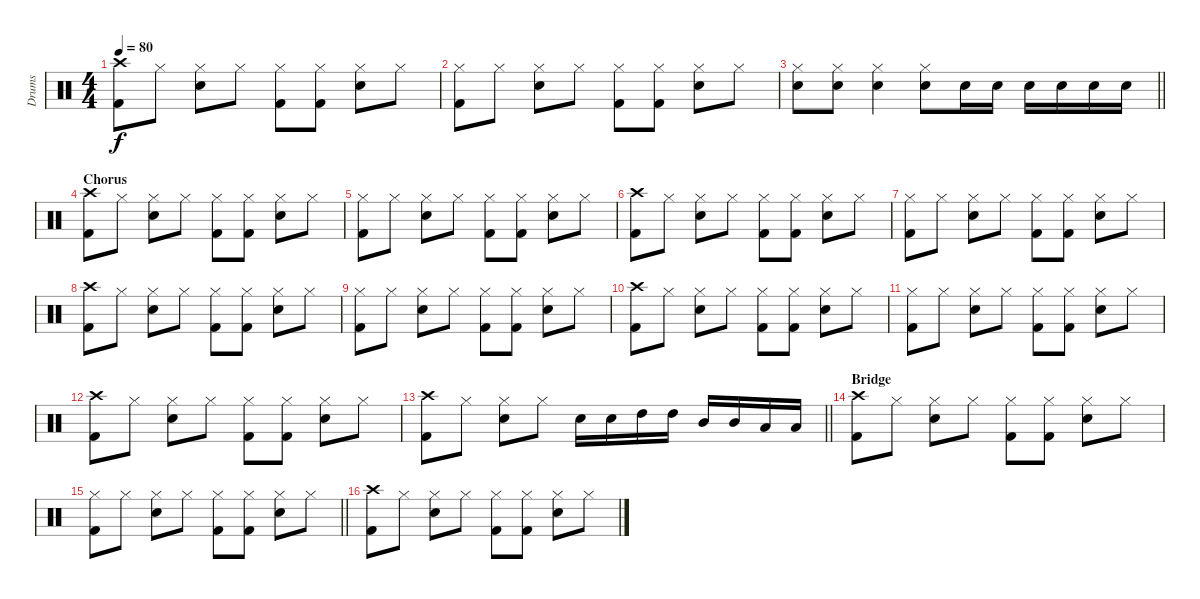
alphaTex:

\track ("Drums" "Drums") {instrument percussion}
\staff {score}
\articulation defaults
\ts (4 4)
\tempo 80
\clef neutral
\ks c
("Crash high (hit)" "Kick (hit) 2").8{dy f} "Hi-Hat (closed)".8 ("Hi-Hat (closed)" "Electric Snare (hit)").8 "Hi-Hat (closed)".8 ("Hi-Hat (closed)" "Kick (hit) 2").8 ("Hi-Hat (closed)" "Kick (hit) 2").8 ("Hi-Hat (closed)" "Electric Snare (hit)").8 "Hi-Hat (closed)".8 |
("Hi-Hat (closed)" "Kick (hit) 2").8 "Hi-Hat (closed)".8 ("Hi-Hat (closed)" "Electric Snare (hit)").8 "Hi-Hat (closed)".8 ("Hi-Hat (closed)" "Kick (hit) 2").8 ("Hi-Hat (closed)" "Kick (hit) 2").8 ("Hi-Hat (closed)" "Electric Snare (hit)").8 "Hi-Hat (closed)".8 |
\barLineRight lightlight
("Hi-Hat (closed)" "Electric Snare (hit)").8 ("Hi-Hat (closed)" "Electric Snare (hit)").8 ("Hi-Hat (closed)" "Electric Snare (hit)").4 ("Hi-Hat (closed)" "Electric Snare (hit)").8 "Electric Snare (hit)".16 "Electric Snare (hit)".16 "Electric Snare (hit)".16 "Electric Snare (hit)".16 "Electric Snare (hit)".16 "Electric Snare (hit)".16 |
\section ("" "Chorus")
("Crash high (hit)" "Kick (hit) 2").8 "Hi-Hat (closed)".8 ("Hi-Hat (closed)" "Electric Snare (hit)").8 "Hi-Hat (closed)".8 ("Hi-Hat (closed)" "Kick (hit) 2").8 ("Hi-Hat (closed)" "Kick (hit) 2").8 ("Hi-Hat (closed)" "Electric Snare (hit)").8 "Hi-Hat (closed)".8 |
("Hi-Hat (closed)" "Kick (hit) 2").8 "Hi-Hat (closed)".8 ("Hi-Hat (closed)" "Electric Snare (hit)").8 "Hi-Hat (closed)".8 ("Hi-Hat (closed)" "Kick (hit) 2").8 ("Hi-Hat (closed)" "Kick (hit) 2").8 ("Hi-Hat (closed)" "Electric Snare (hit)").8 "Hi-Hat (closed)".8 |
("Crash high (hit)" "Kick (hit) 2").8 "Hi-Hat (closed)".8 ("Hi-Hat (closed)" "Electric Snare (hit)").8 "Hi-Hat (closed)".8 ("Hi-Hat (closed)" "Kick (hit) 2").8 ("Hi-Hat (closed)" "Kick (hit) 2").8 ("Hi-Hat (closed)" "Electric Snare (hit)").8 "Hi-Hat (closed)".8 |
("Hi-Hat (closed)" "Kick (hit) 2").8 "Hi-Hat (closed)".8 ("Hi-Hat (closed)" "Electric Snare (hit)").8 "Hi-Hat (closed)".8 ("Hi-Hat (closed)" "Kick (hit) 2").8 ("Hi-Hat (closed)" "Kick (hit) 2").8 ("Hi-Hat (closed)" "Electric Snare (hit)").8 "Hi-Hat (closed)".8 |
("Crash high (hit)" "Kick (hit) 2").8 "Hi-Hat (closed)".8 ("Hi-Hat (closed)" "Electric Snare (hit)").8 "Hi-Hat (closed)".8 ("Hi-Hat (closed)" "Kick (hit) 2").8 ("Hi-Hat (closed)" "Kick (hit) 2").8 ("Hi-Hat (closed)" "Electric Snare (hit)").8 "Hi-Hat (closed)".8 |
("Hi-Hat (closed)" "Kick (hit) 2").8 "Hi-Hat (closed)".8 ("Hi-Hat (closed)" "Electric Snare (hit)").8 "Hi-Hat (closed)".8 ("Hi-Hat (closed)" "Kick (hit) 2").8 ("Hi-Hat (closed)" "Kick (hit) 2").8 ("Hi-Hat (closed)" "Electric Snare (hit)").8 "Hi-Hat (closed)".8 |
("Crash high (hit)" "Kick (hit) 2").8 "Hi-Hat (closed)".8 ("Hi-Hat (closed)" "Electric Snare (hit)").8 "Hi-Hat (closed)".8 ("Hi-Hat (closed)" "Kick (hit) 2").8 ("Hi-Hat (closed)" "Kick (hit) 2").8 ("Hi-Hat (closed)" "Electric Snare (hit)").8 "Hi-Hat (closed)".8 |
("Hi-Hat (closed)" "Kick (hit) 2").8 "Hi-Hat (closed)".8 ("Hi-Hat (closed)" "Electric Snare (hit)").8 "Hi-Hat (closed)".8 ("Hi-Hat (closed)" "Kick (hit) 2").8 ("Hi-Hat (closed)" "Kick (hit) 2").8 ("Hi-Hat (closed)" "Electric Snare (hit)").8 "Hi-Hat (closed)".8 |
("Crash high (hit)" "Kick (hit) 2").8 "Hi-Hat (closed)".8 ("Hi-Hat (closed)" "Electric Snare (hit)").8 "Hi-Hat (closed)".8 ("Hi-Hat (closed)" "Kick (hit) 2").8 ("Hi-Hat (closed)" "Kick (hit) 2").8 ("Hi-Hat (closed)" "Electric Snare (hit)").8 "Hi-Hat (closed)".8 |
\barLineRight lightlight
("Crash high (hit)" "Kick (hit) 2").8 "Hi-Hat (closed)".8 ("Hi-Hat (closed)" "Electric Snare (hit)").8 "Hi-Hat (closed)".8 "Electric Snare (hit)".16 "Electric Snare (hit)".16 "High Tom (hit)".16 "High Tom (hit)".16 "Mid Tom (hit)".16 "Mid Tom (hit)".16 "Low Tom (hit)".16 "Low Tom (hit)".16 |
\section ("" "Bridge")
("Crash high (hit)" "Kick (hit) 2").8 "Hi-Hat (closed)".8 ("Hi-Hat (closed)" "Electric Snare (hit)").8 "Hi-Hat (closed)".8 ("Hi-Hat (closed)" "Kick (hit) 2").8 ("Hi-Hat (closed)" "Kick (hit) 2").8 ("Hi-Hat (closed)" "Electric Snare (hit)").8 "Hi-Hat (closed)".8 |
\barLineRight lightlight
("Hi-Hat (closed)" "Kick (hit) 2").8 "Hi-Hat (closed)".8 ("Hi-Hat (closed)" "Electric Snare (hit)").8 "Hi-Hat (closed)".8 ("Hi-Hat (closed)" "Kick (hit) 2").8 ("Hi-Hat (closed)" "Kick (hit) 2").8 ("Hi-Hat (closed)" "Electric Snare (hit)").8 "Hi-Hat (closed)".8 |
("Crash high (hit)" "Kick (hit) 2").8 "Hi-Hat (closed)".8 ("Hi-Hat (closed)" "Electric Snare (hit)").8 "Hi-Hat (closed)".8 ("Hi-Hat (closed)" "Kick (hit) 2").8 ("Hi-Hat (closed)" "Kick (hit) 2").8 ("Hi-Hat (closed)" "Electric Snare (hit)").8 "Hi-Hat (closed)".8
